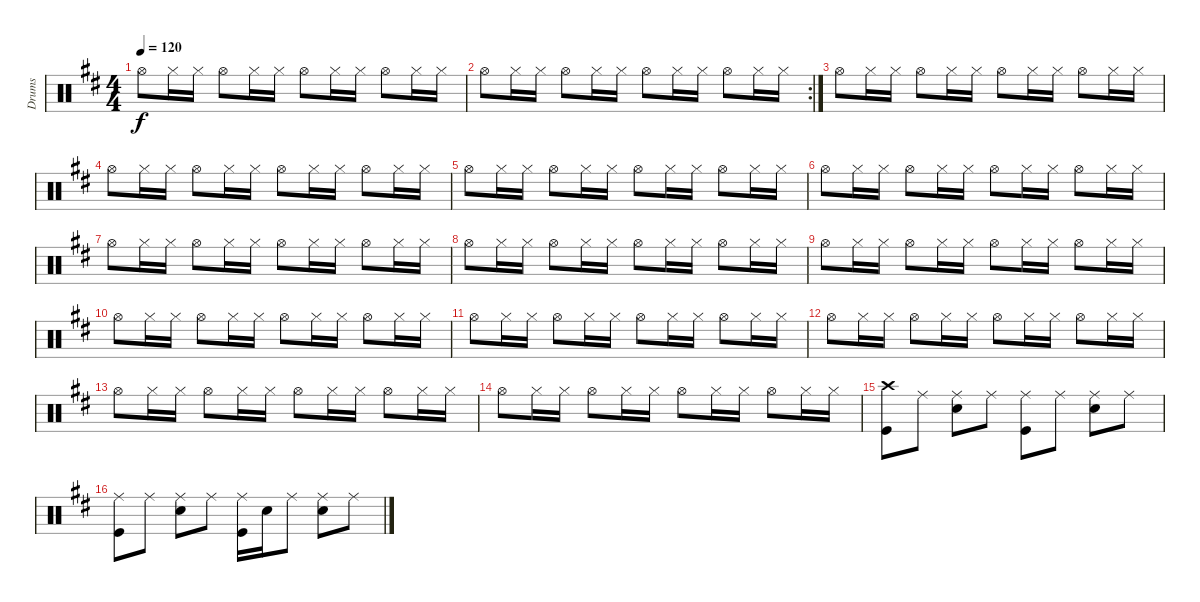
\track ("Drums" "Drums") {instrument percussion}
\staff {score}
\articulation defaults
\ts (4 4)
\tempo 120
\clef neutral
\ks d "Hi-Hat (open)".8{dy f} "Hi-Hat (closed)".16 "Hi-Hat (closed)".16 "Hi-Hat (open)".8 "Hi-Hat (closed)".16 "Hi-Hat (closed)".16 "Hi-Hat (open)".8 "Hi-Hat (closed)".16 "Hi-Hat (closed)".16 "Hi-Hat (open)".8 "Hi-Hat (closed)".16 "Hi-Hat (closed)".16
|
\rc 2 "Hi-Hat (open)".8 "Hi-Hat (closed)".16 "Hi-Hat (closed)".16 "Hi-Hat (open)".8 "Hi-Hat (closed)".16 "Hi-Hat (closed)".16 "Hi-Hat (open)".8 "Hi-Hat (closed)".16 "Hi-Hat (closed)".16 "Hi-Hat (open)".8 "Hi-Hat (closed)".16 "Hi-Hat (closed)".16
|
"Hi-Hat (open)".8 "Hi-Hat (closed)".16 "Hi-Hat (closed)".16 "Hi-Hat (open)".8 "Hi-Hat (closed)".16 "Hi-Hat (closed)".16 "Hi-Hat (open)".8 "Hi-Hat (closed)".16 "Hi-Hat (closed)".16 "Hi-Hat (open)".8 "Hi-Hat (closed)".16 "Hi-Hat (closed)".16 |
"Hi-Hat (open)".8 "Hi-Hat (closed)".16 "Hi-Hat (closed)".16 "Hi-Hat (open)".8 "Hi-Hat (closed)".16 "Hi-Hat (closed)".16 "Hi-Hat (open)".8 "Hi-Hat (closed)".16 "Hi-Hat (closed)".16 "Hi-Hat (open)".8 "Hi-Hat (closed)".16 "Hi-Hat (closed)".16 |
"Hi-Hat (open)".8 "Hi-Hat (closed)".16 "Hi-Hat (closed)".16 "Hi-Hat (open)".8 "Hi-Hat (closed)".16 "Hi-Hat (closed)".16 "Hi-Hat (open)".8 "Hi-Hat (closed)".16 "Hi-Hat (closed)".16 "Hi-Hat (open)".8 "Hi-Hat (closed)".16 "Hi-Hat (closed)".16 |
"Hi-Hat (open)".8 "Hi-Hat (closed)".16 "Hi-Hat (closed)".16 "Hi-Hat (open)".8 "Hi-Hat (closed)".16 "Hi-Hat (closed)".16 "Hi-Hat (open)".8 "Hi-Hat (closed)".16 "Hi-Hat (closed)".16 "Hi-Hat (open)".8 "Hi-Hat (closed)".16 "Hi-Hat (closed)".16 |
"Hi-Hat (open)".8 "Hi-Hat (closed)".16 "Hi-Hat (closed)".16 "Hi-Hat (open)".8 "Hi-Hat (closed)".16 "Hi-Hat (closed)".16 "Hi-Hat (open)".8 "Hi-Hat (closed)".16 "Hi-Hat (closed)".16 "Hi-Hat (open)".8 "Hi-Hat (closed)".16 "Hi-Hat (closed)".16 |
"Hi-Hat (open)".8 "Hi-Hat (closed)".16 "Hi-Hat (closed)".16 "Hi-Hat (open)".8 "Hi-Hat (closed)".16 "Hi-Hat (closed)".16 "Hi-Hat (open)".8 "Hi-Hat (closed)".16 "Hi-Hat (closed)".16 "Hi-Hat (open)".8 "Hi-Hat (closed)".16 "Hi-Hat (closed)".16 |
"Hi-Hat (open)".8 "Hi-Hat (closed)".16 "Hi-Hat (closed)".16 "Hi-Hat (open)".8 "Hi-Hat (closed)".16 "Hi-Hat (closed)".16 "Hi-Hat (open)".8 "Hi-Hat (closed)".16 "Hi-Hat (closed)".16 "Hi-Hat (open)".8 "Hi-Hat (closed)".16 "Hi-Hat (closed)".16 |
"Hi-Hat (open)".8 "Hi-Hat (closed)".16 "Hi-Hat (closed)".16 "Hi-Hat (open)".8 "Hi-Hat (closed)".16 "Hi-Hat (closed)".16 "Hi-Hat (open)".8 "Hi-Hat (closed)".16 "Hi-Hat (closed)".16 "Hi-Hat (open)".8 "Hi-Hat (closed)".16 "Hi-Hat (closed)".16 |
"Hi-Hat (open)".8 "Hi-Hat (closed)".16 "Hi-Hat (closed)".16 "Hi-Hat (open)".8 "Hi-Hat (closed)".16 "Hi-Hat (closed)".16 "Hi-Hat (open)".8 "Hi-Hat (closed)".16 "Hi-Hat (closed)".16 "Hi-Hat (open)".8 "Hi-Hat (closed)".16 "Hi-Hat (closed)".16 |
"Hi-Hat (open)".8 "Hi-Hat (closed)".16 "Hi-Hat (closed)".16 "Hi-Hat (open)".8 "Hi-Hat (closed)".16 "Hi-Hat (closed)".16 "Hi-Hat (open)".8 "Hi-Hat (closed)".16 "Hi-Hat (closed)".16 "Hi-Hat (open)".8 "Hi-Hat (closed)".16 "Hi-Hat (closed)".16 |
"Hi-Hat (open)".8 "Hi-Hat (closed)".16 "Hi-Hat (closed)".16 "Hi-Hat (open)".8 "Hi-Hat (closed)".16 "Hi-Hat (closed)".16 "Hi-Hat (open)".8 "Hi-Hat (closed)".16 "Hi-Hat (closed)".16 "Hi-Hat (open)".8 "Hi-Hat (closed)".16 "Hi-Hat (closed)".16 |
"Hi-Hat (open)".8 "Hi-Hat (closed)".16 "Hi-Hat (closed)".16 "Hi-Hat (open)".8 "Hi-Hat (closed)".16 "Hi-Hat (closed)".16 "Hi-Hat (open)".8 "Hi-Hat (closed)".16 "Hi-Hat (closed)".16 "Hi-Hat (open)".8 "Hi-Hat (closed)".16 "Hi-Hat (closed)".16 |
("Crash high (hit)" "Kick (hit)").8 "Ride (middle)".8 ("Ride (middle)" "Snare (hit) 2").8 "Ride (middle)".8 ("Ride (middle)" "Kick (hit)").8 "Ride (middle)".8 ("Ride (middle)" "Snare (hit) 2").8 "Ride (middle)".8 |
("Ride (middle)" "Kick (hit)").8 "Ride (middle)".8 ("Ride (middle)" "Snare (hit) 2").8 "Ride (middle)".8 ("Ride (middle)" "Kick (hit)").16 "Snare (hit) 2".16 "Ride (middle)".8 ("Ride (middle)" "Snare (hit) 2").8 "Ride (middle)".8
